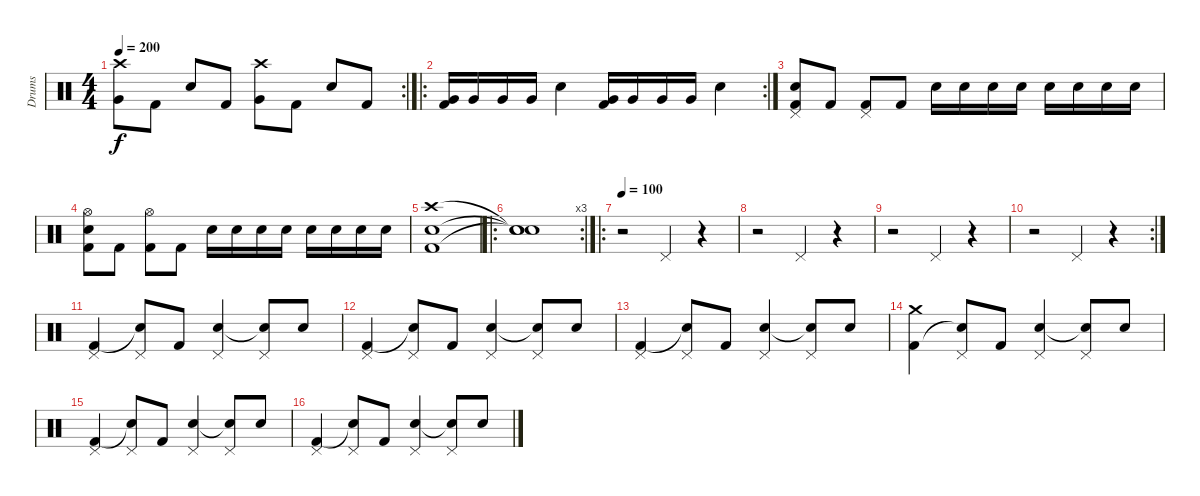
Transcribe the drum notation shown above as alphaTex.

\track ("Drums" "Drums") {instrument percussion}
\staff {score}
\articulation defaults
\rc 2
\ts (4 4)
\tempo 200
\clef neutral
\ks c
("Very Low Tom (hit)" "Crash high (hit)").8{dy f} "Kick (hit) 2".8 "Electric Snare (hit)".8 "Kick (hit) 2".8 ("Very Low Tom (hit)" "Crash high (hit)").8 "Kick (hit) 2".8 "Electric Snare (hit)".8 "Kick (hit) 2".8 |
\ro
\rc 2
("Very Low Tom (hit)" "Kick (hit) 2").16 "Very Low Tom (hit)".16 "Very Low Tom (hit)".16 "Very Low Tom (hit)".16 "Electric Snare (hit)".4 ("Very Low Tom (hit)" "Kick (hit) 2").16 "Very Low Tom (hit)".16 "Very Low Tom (hit)".16 "Very Low Tom (hit)".16 "Electric Snare (hit)".4 |
("Pedal Hi-Hat (hit)" "Electric Snare (hit)" "Kick (hit) 2").8 "Kick (hit) 2".8 ("Pedal Hi-Hat (hit)" "Kick (hit) 2").8 "Kick (hit) 2".8 "Electric Snare (hit)".16 "Electric Snare (hit)".16 "Electric Snare (hit)".16 "Electric Snare (hit)".16 "Electric Snare (hit)".16 "Electric Snare (hit)".16 "Electric Snare (hit)".16 "Electric Snare (hit)".16 |
("Hi-Hat (open)" "Electric Snare (hit)" "Kick (hit) 2").8 "Kick (hit) 2".8 ("Hi-Hat (open)" "Kick (hit) 2").8 "Kick (hit) 2".8 "Electric Snare (hit)".16 "Electric Snare (hit)".16 "Electric Snare (hit)".16 "Electric Snare (hit)".16 "Electric Snare (hit)".16 "Electric Snare (hit)".16 "Electric Snare (hit)".16 "Electric Snare (hit)".16 |
("Crash high (hit)" "Electric Snare (hit)" "Kick (hit) 2").1 |
\ro
\rc 3
("Snare (hit)"{t} "Snare (hit)"{t} "Snare (hit)"{t}).1 |
\ro
\tempo 100
r.2 "Pedal Hi-Hat (hit)".4 r.4 |
r.2 "Pedal Hi-Hat (hit)".4 r.4 |
r.2 "Pedal Hi-Hat (hit)".4 r.4 |
\rc 2
r.2 "Pedal Hi-Hat (hit)".4 r.4 |
("Pedal Hi-Hat (hit)" "Kick (hit) 2").4 ("Pedal Hi-Hat (hit)" "Snare (hit)"{t}).8 "Kick (hit) 2".8 ("Pedal Hi-Hat (hit)" "Electric Snare (hit)").4 ("Pedal Hi-Hat (hit)" "Snare (hit)"{t}).8 "Electric Snare (hit)".8 |
("Pedal Hi-Hat (hit)" "Kick (hit) 2").4 ("Pedal Hi-Hat (hit)" "Snare (hit)"{t}).8 "Kick (hit) 2".8 ("Pedal Hi-Hat (hit)" "Electric Snare (hit)").4 ("Pedal Hi-Hat (hit)" "Snare (hit)"{t}).8 "Electric Snare (hit)".8 |
("Pedal Hi-Hat (hit)" "Kick (hit) 2").4 ("Pedal Hi-Hat (hit)" "Snare (hit)"{t}).8 "Kick (hit) 2".8 ("Pedal Hi-Hat (hit)" "Electric Snare (hit)").4 ("Pedal Hi-Hat (hit)" "Snare (hit)"{t}).8 "Electric Snare (hit)".8 |
("Crash medium (hit)" "Kick (hit) 2").4 ("Pedal Hi-Hat (hit)" "Snare (hit)"{t}).8 "Kick (hit) 2".8 ("Pedal Hi-Hat (hit)" "Electric Snare (hit)").4 ("Pedal Hi-Hat (hit)" "Snare (hit)"{t}).8 "Electric Snare (hit)".8 |
("Pedal Hi-Hat (hit)" "Kick (hit) 2").4 ("Pedal Hi-Hat (hit)" "Snare (hit)"{t}).8 "Kick (hit) 2".8 ("Pedal Hi-Hat (hit)" "Electric Snare (hit)").4 ("Pedal Hi-Hat (hit)" "Snare (hit)"{t}).8 "Electric Snare (hit)".8 |
("Pedal Hi-Hat (hit)" "Kick (hit) 2").4 ("Pedal Hi-Hat (hit)" "Snare (hit)"{t}).8 "Kick (hit) 2".8 ("Pedal Hi-Hat (hit)" "Electric Snare (hit)").4 ("Pedal Hi-Hat (hit)" "Snare (hit)"{t}).8 "Electric Snare (hit)".8
